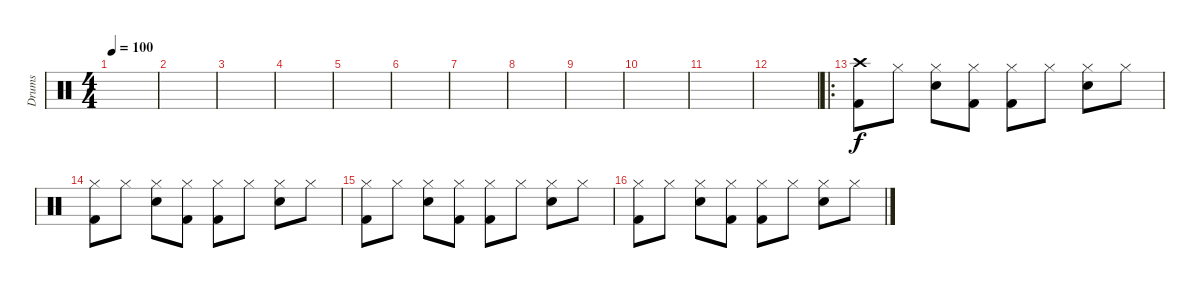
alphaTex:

\track ("Drums" "Drums") {instrument percussion}
\staff {score}
\articulation defaults
\ts (4 4)
\tempo 100
\clef neutral
\ks c
|
|
|
|
|
|
|
|
|
|
|
|
\ro
("Crash high (hit)" "Kick (hit) 2").8 "Hi-Hat (closed)".8 ("Hi-Hat (closed)" "Snare (hit) 2").8 ("Hi-Hat (closed)" "Kick (hit) 2").8 ("Hi-Hat (closed)" "Kick (hit) 2").8 "Hi-Hat (closed)".8 ("Hi-Hat (closed)" "Snare (hit) 2").8 "Hi-Hat (closed)".8 |
("Hi-Hat (closed)" "Kick (hit) 2").8 "Hi-Hat (closed)".8 ("Hi-Hat (closed)" "Snare (hit) 2").8 ("Hi-Hat (closed)" "Kick (hit) 2").8 ("Hi-Hat (closed)" "Kick (hit) 2").8 "Hi-Hat (closed)".8 ("Hi-Hat (closed)" "Snare (hit) 2").8 "Hi-Hat (closed)".8 |
("Hi-Hat (closed)" "Kick (hit) 2").8 "Hi-Hat (closed)".8 ("Hi-Hat (closed)" "Snare (hit) 2").8 ("Hi-Hat (closed)" "Kick (hit) 2").8 ("Hi-Hat (closed)" "Kick (hit) 2").8 "Hi-Hat (closed)".8 ("Hi-Hat (closed)" "Snare (hit) 2").8 "Hi-Hat (closed)".8 |
("Hi-Hat (closed)" "Kick (hit) 2").8 "Hi-Hat (closed)".8 ("Hi-Hat (closed)" "Snare (hit) 2").8 ("Hi-Hat (closed)" "Kick (hit) 2").8 ("Hi-Hat (closed)" "Kick (hit) 2").8 "Hi-Hat (closed)".8 ("Hi-Hat (closed)" "Snare (hit) 2").8 "Hi-Hat (closed)".8
